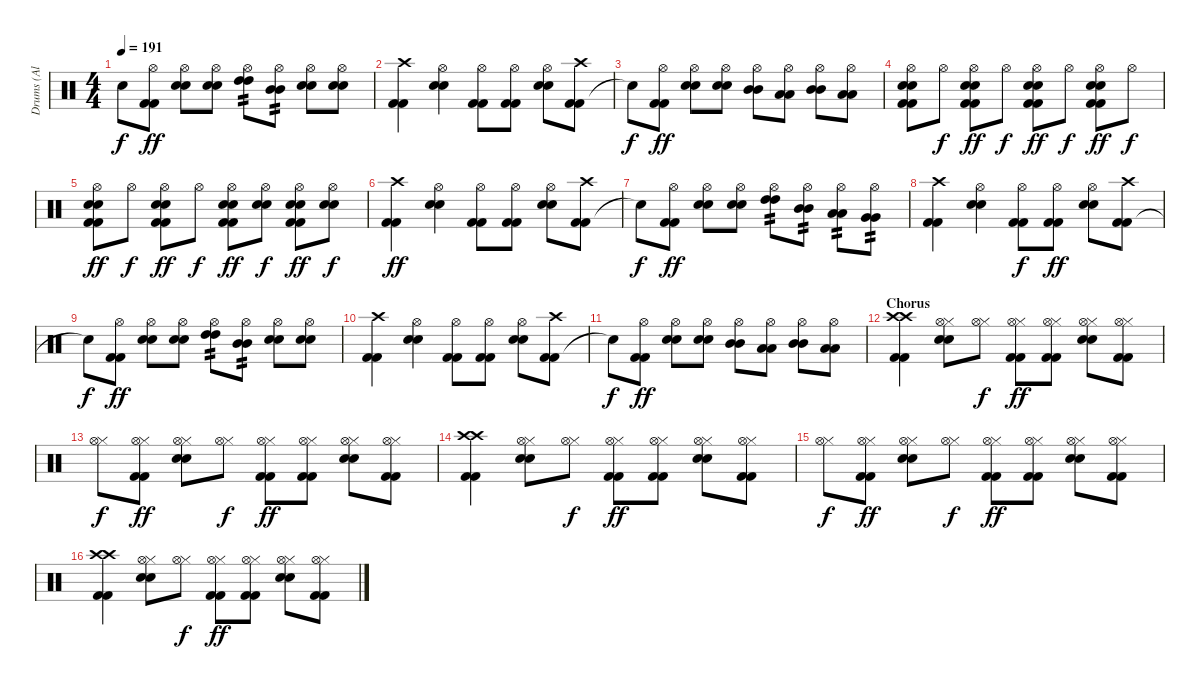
\track ("Drums (Al Sobrante)" "Drums (Al ") {instrument percussion}
\staff {score}
\articulation defaults
\ts (4 4)
\tempo 191
\clef neutral
\ks c "Snare (hit)"{t}.8{dy f}
("Kick (hit) 2" "Kick (hit) 2" "Hi-Hat (open)").8{dy ff} ("Electric Snare (hit)" "Electric Snare (hit)" "Hi-Hat (open)").8 ("Electric Snare (hit)" "Electric Snare (hit)" "Hi-Hat (open)").8 ("High Tom (hit)" "High Tom (hit)" "Hi-Hat (open)").8{tp 2} ("Mid Tom (hit)" "Mid Tom (hit)" "Hi-Hat (open)").8{tp 2} ("Electric Snare (hit)" "Electric Snare (hit)" "Hi-Hat (open)").8 ("Electric Snare (hit)" "Electric Snare (hit)" "Hi-Hat (open)").8 |
("Kick (hit) 2" "Kick (hit) 2" "Crash high (hit)").4 ("Electric Snare (hit)" "Electric Snare (hit)" "Hi-Hat (open)").4 ("Kick (hit) 2" "Kick (hit) 2" "Hi-Hat (open)").8 ("Kick (hit) 2" "Kick (hit) 2" "Hi-Hat (open)").8 ("Electric Snare (hit)" "Electric Snare (hit)" "Hi-Hat (open)").8 ("Kick (hit) 2" "Kick (hit) 2" "Crash high (hit)").8 |
"Snare (hit)"{t}.8{dy f} ("Kick (hit) 2" "Kick (hit) 2" "Hi-Hat (open)").8{dy ff} ("Electric Snare (hit)" "Electric Snare (hit)" "Hi-Hat (open)").8 ("Electric Snare (hit)" "Electric Snare (hit)" "Hi-Hat (open)").8 ("Mid Tom (hit)" "Mid Tom (hit)" "Hi-Hat (open)").8 ("Low Tom (hit)" "Low Tom (hit)" "Hi-Hat (open)").8 ("Mid Tom (hit)" "Mid Tom (hit)" "Hi-Hat (open)").8 ("Low Tom (hit)" "Low Tom (hit)" "Hi-Hat (open)").8 |
("Kick (hit) 2" "Kick (hit) 2" "Electric Snare (hit)" "Electric Snare (hit)" "Hi-Hat (open)").8 "Hi-Hat (open)".8{dy f} ("Kick (hit) 2" "Kick (hit) 2" "Electric Snare (hit)" "Electric Snare (hit)" "Hi-Hat (open)").8{dy ff} "Hi-Hat (open)".8{dy f} ("Kick (hit) 2" "Kick (hit) 2" "Electric Snare (hit)" "Electric Snare (hit)" "Hi-Hat (open)").8{dy ff} "Hi-Hat (open)".8{dy f} ("Kick (hit) 2" "Kick (hit) 2" "Electric Snare (hit)" "Electric Snare (hit)" "Hi-Hat (open)").8{dy ff} "Hi-Hat (open)".8{dy f} |
("Kick (hit) 2" "Kick (hit) 2" "Electric Snare (hit)" "Electric Snare (hit)" "Hi-Hat (open)").8{dy ff} "Hi-Hat (open)".8{dy f} ("Kick (hit) 2" "Kick (hit) 2" "Electric Snare (hit)" "Electric Snare (hit)" "Hi-Hat (open)").8{dy ff} "Hi-Hat (open)".8{dy f} ("Kick (hit) 2" "Kick (hit) 2" "Electric Snare (hit)" "Electric Snare (hit)" "Hi-Hat (open)").8{dy ff} ("Electric Snare (hit)" "Electric Snare (hit)" "Hi-Hat (open)").8{dy f} ("Kick (hit) 2" "Kick (hit) 2" "Electric Snare (hit)" "Electric Snare (hit)" "Hi-Hat (open)").8{dy ff} ("Electric Snare (hit)" "Electric Snare (hit)" "Hi-Hat (open)").8{dy f} |
("Kick (hit) 2" "Kick (hit) 2" "Crash high (hit)").4{dy ff} ("Electric Snare (hit)" "Electric Snare (hit)" "Hi-Hat (open)").4 ("Kick (hit) 2" "Kick (hit) 2" "Hi-Hat (open)").8 ("Kick (hit) 2" "Kick (hit) 2" "Hi-Hat (open)").8 ("Electric Snare (hit)" "Electric Snare (hit)" "Hi-Hat (open)").8 ("Kick (hit) 2" "Kick (hit) 2" "Crash high (hit)").8 |
"Snare (hit)"{t}.8{dy f} ("Kick (hit) 2" "Kick (hit) 2" "Hi-Hat (open)").8{dy ff} ("Electric Snare (hit)" "Electric Snare (hit)" "Hi-Hat (open)").8 ("Electric Snare (hit)" "Electric Snare (hit)" "Hi-Hat (open)").8 ("High Tom (hit)" "High Tom (hit)" "Hi-Hat (open)").8{tp 2} ("Mid Tom (hit)" "Mid Tom (hit)" "Hi-Hat (open)").8{tp 2} ("Low Tom (hit)" "Low Tom (hit)" "Hi-Hat (open)").8{tp 2} ("Very Low Tom (hit)" "Very Low Tom (hit)" "Hi-Hat (open)").8{tp 2} |
("Kick (hit) 2" "Kick (hit) 2" "Crash high (hit)").4 ("Electric Snare (hit)" "Electric Snare (hit)" "Hi-Hat (open)").4 ("Kick (hit) 2" "Kick (hit) 2" "Hi-Hat (open)").8{dy f} ("Kick (hit) 2" "Kick (hit) 2" "Hi-Hat (open)").8{dy ff} ("Electric Snare (hit)" "Electric Snare (hit)" "Hi-Hat (open)").8 ("Kick (hit) 2" "Kick (hit) 2" "Crash high (hit)").8 |
"Snare (hit)"{t}.8{dy f} ("Kick (hit) 2" "Kick (hit) 2" "Hi-Hat (open)").8{dy ff} ("Electric Snare (hit)" "Electric Snare (hit)" "Hi-Hat (open)").8 ("Electric Snare (hit)" "Electric Snare (hit)" "Hi-Hat (open)").8 ("High Tom (hit)" "High Tom (hit)" "Hi-Hat (open)").8{tp 2} ("Mid Tom (hit)" "Mid Tom (hit)" "Hi-Hat (open)").8{tp 2} ("Electric Snare (hit)" "Electric Snare (hit)" "Hi-Hat (open)").8 ("Electric Snare (hit)" "Electric Snare (hit)" "Hi-Hat (open)").8 |
("Kick (hit) 2" "Kick (hit) 2" "Crash high (hit)").4 ("Electric Snare (hit)" "Electric Snare (hit)" "Hi-Hat (open)").4 ("Kick (hit) 2" "Kick (hit) 2" "Hi-Hat (open)").8 ("Kick (hit) 2" "Kick (hit) 2" "Hi-Hat (open)").8 ("Electric Snare (hit)" "Electric Snare (hit)" "Hi-Hat (open)").8 ("Kick (hit) 2" "Kick (hit) 2" "Crash high (hit)").8 |
"Snare (hit)"{t}.8{dy f} ("Kick (hit) 2" "Kick (hit) 2" "Hi-Hat (open)").8{dy ff} ("Electric Snare (hit)" "Electric Snare (hit)" "Hi-Hat (open)").8 ("Electric Snare (hit)" "Electric Snare (hit)" "Hi-Hat (open)").8 ("Mid Tom (hit)" "Mid Tom (hit)" "Hi-Hat (open)").8 ("Low Tom (hit)" "Low Tom (hit)" "Hi-Hat (open)").8 ("Mid Tom (hit)" "Mid Tom (hit)" "Hi-Hat (open)").8 ("Low Tom (hit)" "Low Tom (hit)" "Hi-Hat (open)").8 |
\section ("" "Chorus")
("Kick (hit) 2" "Kick (hit) 2" "Crash high (hit)" "Crash high (hit)").4 ("Electric Snare (hit)" "Electric Snare (hit)" "Hi-Hat (closed)" "Hi-Hat (open)").8 ("Hi-Hat (closed)" "Hi-Hat (open)").8{dy f} ("Kick (hit) 2" "Kick (hit) 2" "Hi-Hat (closed)" "Hi-Hat (open)").8{dy ff} ("Kick (hit) 2" "Kick (hit) 2" "Hi-Hat (closed)" "Hi-Hat (open)").8 ("Electric Snare (hit)" "Electric Snare (hit)" "Hi-Hat (closed)" "Hi-Hat (open)").8 ("Kick (hit) 2" "Kick (hit) 2" "Hi-Hat (closed)" "Hi-Hat (open)").8 |
("Hi-Hat (closed)" "Hi-Hat (open)").8{dy f} ("Kick (hit) 2" "Kick (hit) 2" "Hi-Hat (closed)" "Hi-Hat (open)").8{dy ff} ("Electric Snare (hit)" "Electric Snare (hit)" "Hi-Hat (closed)" "Hi-Hat (open)").8 ("Hi-Hat (closed)" "Hi-Hat (open)").8{dy f} ("Kick (hit) 2" "Kick (hit) 2" "Hi-Hat (closed)" "Hi-Hat (open)").8{dy ff} ("Kick (hit) 2" "Kick (hit) 2" "Hi-Hat (closed)" "Hi-Hat (open)").8 ("Electric Snare (hit)" "Electric Snare (hit)" "Hi-Hat (closed)" "Hi-Hat (open)").8 ("Kick (hit) 2" "Kick (hit) 2" "Hi-Hat (closed)" "Hi-Hat (open)").8 |
("Kick (hit) 2" "Kick (hit) 2" "Crash high (hit)" "Crash high (hit)").4 ("Electric Snare (hit)" "Electric Snare (hit)" "Hi-Hat (closed)" "Hi-Hat (open)").8 ("Hi-Hat (closed)" "Hi-Hat (open)").8{dy f} ("Kick (hit) 2" "Kick (hit) 2" "Hi-Hat (closed)" "Hi-Hat (open)").8{dy ff} ("Kick (hit) 2" "Kick (hit) 2" "Hi-Hat (closed)" "Hi-Hat (open)").8 ("Electric Snare (hit)" "Electric Snare (hit)" "Hi-Hat (closed)" "Hi-Hat (open)").8 ("Kick (hit) 2" "Kick (hit) 2" "Hi-Hat (closed)" "Hi-Hat (open)").8 |
("Hi-Hat (closed)" "Hi-Hat (open)").8{dy f} ("Kick (hit) 2" "Kick (hit) 2" "Hi-Hat (closed)" "Hi-Hat (open)").8{dy ff} ("Electric Snare (hit)" "Electric Snare (hit)" "Hi-Hat (closed)" "Hi-Hat (open)").8 ("Hi-Hat (closed)" "Hi-Hat (open)").8{dy f} ("Kick (hit) 2" "Kick (hit) 2" "Hi-Hat (closed)" "Hi-Hat (open)").8{dy ff} ("Kick (hit) 2" "Kick (hit) 2" "Hi-Hat (closed)" "Hi-Hat (open)").8 ("Electric Snare (hit)" "Electric Snare (hit)" "Hi-Hat (closed)" "Hi-Hat (open)").8 ("Kick (hit) 2" "Kick (hit) 2" "Hi-Hat (closed)" "Hi-Hat (open)").8 |
("Kick (hit) 2" "Kick (hit) 2" "Crash high (hit)" "Crash high (hit)").4 ("Electric Snare (hit)" "Electric Snare (hit)" "Hi-Hat (closed)" "Hi-Hat (open)").8 ("Hi-Hat (closed)" "Hi-Hat (open)").8{dy f} ("Kick (hit) 2" "Kick (hit) 2" "Hi-Hat (closed)" "Hi-Hat (open)").8{dy ff} ("Kick (hit) 2" "Kick (hit) 2" "Hi-Hat (closed)" "Hi-Hat (open)").8 ("Electric Snare (hit)" "Electric Snare (hit)" "Hi-Hat (closed)" "Hi-Hat (open)").8 ("Kick (hit) 2" "Kick (hit) 2" "Hi-Hat (closed)" "Hi-Hat (open)").8
